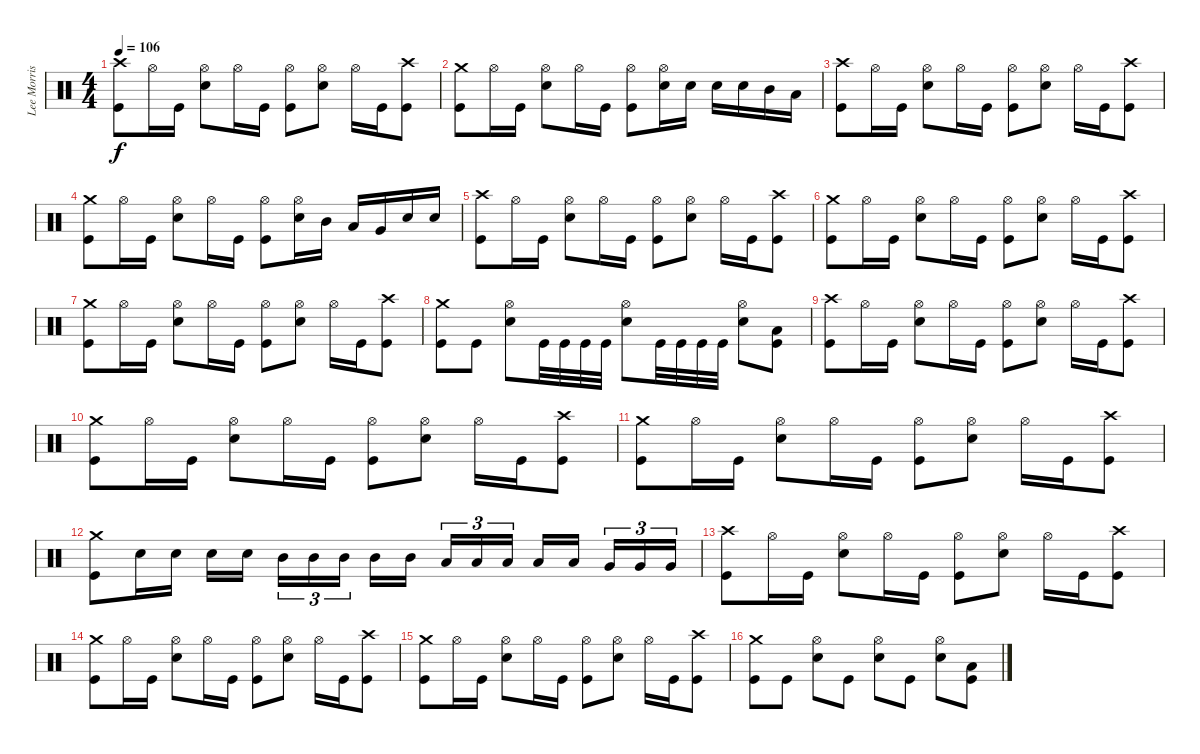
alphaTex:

\track ("Lee Morris" "Lee Morris") {instrument percussion}
\staff {score}
\articulation defaults
\ts (4 4)
\tempo 106
\clef neutral
\ks c
("Kick (hit)" "Crash high (hit)").8{dy f} "Hi-Hat (open)".16 "Kick (hit)".16 ("Snare (hit) 2" "Hi-Hat (open)").8 "Hi-Hat (open)".16 "Kick (hit)".16 ("Kick (hit)" "Hi-Hat (open)").8 ("Snare (hit) 2" "Hi-Hat (open)").8 "Hi-Hat (open)".16 "Kick (hit)".16 ("Kick (hit)" "Crash high (hit)").8 |
("Kick (hit)" "Crash medium (hit)").8 "Hi-Hat (open)".16 "Kick (hit)".16 ("Snare (hit) 2" "Hi-Hat (open)").8 "Hi-Hat (open)".16 "Kick (hit)".16 ("Kick (hit)" "Hi-Hat (open)").8 ("Snare (hit) 2" "Hi-Hat (open)").16 "Snare (hit) 2".16 "Snare (hit) 2".16 "Snare (hit) 2".16 "Mid Tom (hit)".16 "Low Tom (hit)".16 |
("Kick (hit)" "Crash high (hit)").8 "Hi-Hat (open)".16 "Kick (hit)".16 ("Snare (hit) 2" "Hi-Hat (open)").8 "Hi-Hat (open)".16 "Kick (hit)".16 ("Kick (hit)" "Hi-Hat (open)").8 ("Snare (hit) 2" "Hi-Hat (open)").8 "Hi-Hat (open)".16 "Kick (hit)".16 ("Kick (hit)" "Crash high (hit)").8 |
("Kick (hit)" "Crash medium (hit)").8 "Hi-Hat (open)".16 "Kick (hit)".16 ("Snare (hit) 2" "Hi-Hat (open)").8 "Hi-Hat (open)".16 "Kick (hit)".16 ("Kick (hit)" "Hi-Hat (open)").8 ("Snare (hit) 2" "Hi-Hat (open)").16 "Mid Tom (hit)".16 "Low Tom (hit)".16 "Very Low Tom (hit)".16 "Snare (hit) 2".16 "Snare (hit) 2".16 |
("Kick (hit)" "Crash high (hit)").8 "Hi-Hat (open)".16 "Kick (hit)".16 ("Snare (hit) 2" "Hi-Hat (open)").8 "Hi-Hat (open)".16 "Kick (hit)".16 ("Kick (hit)" "Hi-Hat (open)").8 ("Snare (hit) 2" "Hi-Hat (open)").8 "Hi-Hat (open)".16 "Kick (hit)".16 ("Kick (hit)" "Crash high (hit)").8 |
("Kick (hit)" "Crash medium (hit)").8 "Hi-Hat (open)".16 "Kick (hit)".16 ("Snare (hit) 2" "Hi-Hat (open)").8 "Hi-Hat (open)".16 "Kick (hit)".16 ("Kick (hit)" "Hi-Hat (open)").8 ("Snare (hit) 2" "Hi-Hat (open)").8 "Hi-Hat (open)".16 "Kick (hit)".16 ("Kick (hit)" "Crash high (hit)").8 |
("Kick (hit)" "Crash medium (hit)").8 "Hi-Hat (open)".16 "Kick (hit)".16 ("Snare (hit) 2" "Hi-Hat (open)").8 "Hi-Hat (open)".16 "Kick (hit)".16 ("Kick (hit)" "Hi-Hat (open)").8 ("Snare (hit) 2" "Hi-Hat (open)").8 "Hi-Hat (open)".16 "Kick (hit)".16 ("Kick (hit)" "Crash high (hit)").8 |
("Kick (hit)" "Crash medium (hit)").8 "Kick (hit)".8 ("Snare (hit) 2" "Hi-Hat (open)").8 "Kick (hit)".32 "Kick (hit)".32 "Kick (hit)".32 "Kick (hit)".32 ("Snare (hit) 2" "Hi-Hat (open)").8 "Kick (hit)".32 "Kick (hit)".32 "Kick (hit)".32 "Kick (hit)".32 ("Snare (hit) 2" "Hi-Hat (open)").8 ("Kick (hit)" "Low Tom (hit)").8 |
("Kick (hit)" "Crash high (hit)").8 "Hi-Hat (open)".16 "Kick (hit)".16 ("Snare (hit) 2" "Hi-Hat (open)").8 "Hi-Hat (open)".16 "Kick (hit)".16 ("Kick (hit)" "Hi-Hat (open)").8 ("Snare (hit) 2" "Hi-Hat (open)").8 "Hi-Hat (open)".16 "Kick (hit)".16 ("Kick (hit)" "Crash high (hit)").8 |
("Kick (hit)" "Crash medium (hit)").8 "Hi-Hat (open)".16 "Kick (hit)".16 ("Snare (hit) 2" "Hi-Hat (open)").8 "Hi-Hat (open)".16 "Kick (hit)".16 ("Kick (hit)" "Hi-Hat (open)").8 ("Snare (hit) 2" "Hi-Hat (open)").8 "Hi-Hat (open)".16 "Kick (hit)".16 ("Kick (hit)" "Crash high (hit)").8 |
("Kick (hit)" "Crash medium (hit)").8 "Hi-Hat (open)".16 "Kick (hit)".16 ("Snare (hit) 2" "Hi-Hat (open)").8 "Hi-Hat (open)".16 "Kick (hit)".16 ("Kick (hit)" "Hi-Hat (open)").8 ("Snare (hit) 2" "Hi-Hat (open)").8 "Hi-Hat (open)".16 "Kick (hit)".16 ("Kick (hit)" "Crash high (hit)").8 |
("Kick (hit)" "Crash medium (hit)").8 "Snare (hit) 2".16 "Snare (hit) 2".16 "Snare (hit) 2".16 "Snare (hit) 2".16 "Mid Tom (hit)".16{tu (3 2)} "Mid Tom (hit)".16{tu (3 2)} "Mid Tom (hit)".16{tu (3 2)} "Mid Tom (hit)".16 "Mid Tom (hit)".16 "Low Tom (hit)".16{tu (3 2)} "Low Tom (hit)".16{tu (3 2)} "Low Tom (hit)".16{tu (3 2)} "Low Tom (hit)".16 "Low Tom (hit)".16 "Very Low Tom (hit)".16{tu (3 2)} "Very Low Tom (hit)".16{tu (3 2)} "Very Low Tom (hit)".16{tu (3 2)} |
("Kick (hit)" "Crash high (hit)").8 "Hi-Hat (open)".16 "Kick (hit)".16 ("Snare (hit) 2" "Hi-Hat (open)").8 "Hi-Hat (open)".16 "Kick (hit)".16 ("Kick (hit)" "Hi-Hat (open)").8 ("Snare (hit) 2" "Hi-Hat (open)").8 "Hi-Hat (open)".16 "Kick (hit)".16 ("Kick (hit)" "Crash high (hit)").8 |
("Kick (hit)" "Crash medium (hit)").8 "Hi-Hat (open)".16 "Kick (hit)".16 ("Snare (hit) 2" "Hi-Hat (open)").8 "Hi-Hat (open)".16 "Kick (hit)".16 ("Kick (hit)" "Hi-Hat (open)").8 ("Snare (hit) 2" "Hi-Hat (open)").8 "Hi-Hat (open)".16 "Kick (hit)".16 ("Kick (hit)" "Crash high (hit)").8 |
("Kick (hit)" "Crash medium (hit)").8 "Hi-Hat (open)".16 "Kick (hit)".16 ("Snare (hit) 2" "Hi-Hat (open)").8 "Hi-Hat (open)".16 "Kick (hit)".16 ("Kick (hit)" "Hi-Hat (open)").8 ("Snare (hit) 2" "Hi-Hat (open)").8 "Hi-Hat (open)".16 "Kick (hit)".16 ("Kick (hit)" "Crash high (hit)").8 |
("Kick (hit)" "Crash medium (hit)").8 "Kick (hit)".8 ("Snare (hit) 2" "Hi-Hat (open)").8 "Kick (hit)".8 ("Snare (hit) 2" "Hi-Hat (open)").8 "Kick (hit)".8 ("Snare (hit) 2" "Hi-Hat (open)").8 ("Kick (hit)" "Low Tom (hit)").8
